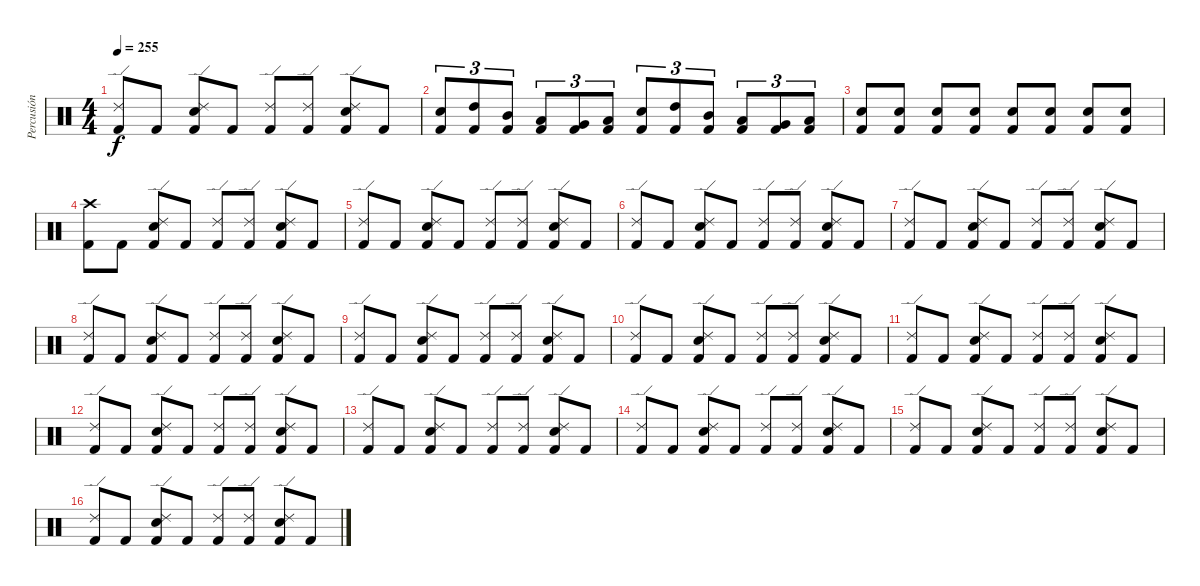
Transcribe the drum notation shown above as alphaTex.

\track ("Percusión" "Percusión") {instrument percussion}
\staff {score}
\articulation defaults
\ts (4 4)
\tempo 255
\clef neutral
\ks c
("Kick (hit) 2" "Ride (edge) 2").8{dy f} "Kick (hit) 2".8 ("Kick (hit) 2" "Electric Snare (hit)" "Ride (edge) 2").8 "Kick (hit) 2".8 ("Kick (hit) 2" "Ride (edge) 2").8 ("Kick (hit) 2" "Ride (edge) 2").8 ("Kick (hit) 2" "Electric Snare (hit)" "Ride (edge) 2").8 "Kick (hit) 2".8 |
("Kick (hit) 2" "Electric Snare (hit)").8{tu (3 2)} ("Kick (hit) 2" "High Tom (hit)").8{tu (3 2)} ("Kick (hit) 2" "Mid Tom (hit)").8{tu (3 2)} ("Kick (hit) 2" "Low Tom (hit)").8{tu (3 2)} ("Kick (hit) 2" "Very Low Tom (hit)").8{tu (3 2)} ("Kick (hit) 2" "Low Floor Tom (hit)").8{tu (3 2)} ("Kick (hit) 2" "Electric Snare (hit)").8{tu (3 2)} ("Kick (hit) 2" "High Tom (hit)").8{tu (3 2)} ("Kick (hit) 2" "Mid Tom (hit)").8{tu (3 2)} ("Kick (hit) 2" "Low Tom (hit)").8{tu (3 2)} ("Kick (hit) 2" "Very Low Tom (hit)").8{tu (3 2)} ("Kick (hit) 2" "Low Floor Tom (hit)").8{tu (3 2)} |
("Kick (hit) 2" "Electric Snare (hit)").8 ("Kick (hit) 2" "Electric Snare (hit)").8 ("Kick (hit) 2" "Electric Snare (hit)").8 ("Kick (hit) 2" "Electric Snare (hit)").8 ("Kick (hit) 2" "Electric Snare (hit)").8 ("Kick (hit) 2" "Electric Snare (hit)").8 ("Kick (hit) 2" "Electric Snare (hit)").8 ("Kick (hit) 2" "Electric Snare (hit)").8 |
("Kick (hit) 2" "Crash high (hit)").8 "Kick (hit) 2".8 ("Kick (hit) 2" "Electric Snare (hit)" "Ride (edge) 2").8 "Kick (hit) 2".8 ("Kick (hit) 2" "Ride (edge) 2").8 ("Kick (hit) 2" "Ride (edge) 2").8 ("Kick (hit) 2" "Electric Snare (hit)" "Ride (edge) 2").8 "Kick (hit) 2".8 |
("Kick (hit) 2" "Ride (edge) 2").8 "Kick (hit) 2".8 ("Kick (hit) 2" "Electric Snare (hit)" "Ride (edge) 2").8 "Kick (hit) 2".8 ("Kick (hit) 2" "Ride (edge) 2").8 ("Kick (hit) 2" "Ride (edge) 2").8 ("Kick (hit) 2" "Electric Snare (hit)" "Ride (edge) 2").8 "Kick (hit) 2".8 |
("Kick (hit) 2" "Ride (edge) 2").8 "Kick (hit) 2".8 ("Kick (hit) 2" "Electric Snare (hit)" "Ride (edge) 2").8 "Kick (hit) 2".8 ("Kick (hit) 2" "Ride (edge) 2").8 ("Kick (hit) 2" "Ride (edge) 2").8 ("Kick (hit) 2" "Electric Snare (hit)" "Ride (edge) 2").8 "Kick (hit) 2".8 |
("Kick (hit) 2" "Ride (edge) 2").8 "Kick (hit) 2".8 ("Kick (hit) 2" "Electric Snare (hit)" "Ride (edge) 2").8 "Kick (hit) 2".8 ("Kick (hit) 2" "Ride (edge) 2").8 ("Kick (hit) 2" "Ride (edge) 2").8 ("Kick (hit) 2" "Electric Snare (hit)" "Ride (edge) 2").8 "Kick (hit) 2".8 |
("Kick (hit) 2" "Ride (edge) 2").8 "Kick (hit) 2".8 ("Kick (hit) 2" "Electric Snare (hit)" "Ride (edge) 2").8 "Kick (hit) 2".8 ("Kick (hit) 2" "Ride (edge) 2").8 ("Kick (hit) 2" "Ride (edge) 2").8 ("Kick (hit) 2" "Electric Snare (hit)" "Ride (edge) 2").8 "Kick (hit) 2".8 |
("Kick (hit) 2" "Ride (edge) 2").8 "Kick (hit) 2".8 ("Kick (hit) 2" "Electric Snare (hit)" "Ride (edge) 2").8 "Kick (hit) 2".8 ("Kick (hit) 2" "Ride (edge) 2").8 ("Kick (hit) 2" "Ride (edge) 2").8 ("Kick (hit) 2" "Electric Snare (hit)" "Ride (edge) 2").8 "Kick (hit) 2".8 |
("Kick (hit) 2" "Ride (edge) 2").8 "Kick (hit) 2".8 ("Kick (hit) 2" "Electric Snare (hit)" "Ride (edge) 2").8 "Kick (hit) 2".8 ("Kick (hit) 2" "Ride (edge) 2").8 ("Kick (hit) 2" "Ride (edge) 2").8 ("Kick (hit) 2" "Electric Snare (hit)" "Ride (edge) 2").8 "Kick (hit) 2".8 |
("Kick (hit) 2" "Ride (edge) 2").8 "Kick (hit) 2".8 ("Kick (hit) 2" "Electric Snare (hit)" "Ride (edge) 2").8 "Kick (hit) 2".8 ("Kick (hit) 2" "Ride (edge) 2").8 ("Kick (hit) 2" "Ride (edge) 2").8 ("Kick (hit) 2" "Electric Snare (hit)" "Ride (edge) 2").8 "Kick (hit) 2".8 |
("Kick (hit) 2" "Ride (edge) 2").8 "Kick (hit) 2".8 ("Kick (hit) 2" "Electric Snare (hit)" "Ride (edge) 2").8 "Kick (hit) 2".8 ("Kick (hit) 2" "Ride (edge) 2").8 ("Kick (hit) 2" "Ride (edge) 2").8 ("Kick (hit) 2" "Electric Snare (hit)" "Ride (edge) 2").8 "Kick (hit) 2".8 |
("Kick (hit) 2" "Ride (edge) 2").8 "Kick (hit) 2".8 ("Kick (hit) 2" "Electric Snare (hit)" "Ride (edge) 2").8 "Kick (hit) 2".8 ("Kick (hit) 2" "Ride (edge) 2").8 ("Kick (hit) 2" "Ride (edge) 2").8 ("Kick (hit) 2" "Electric Snare (hit)" "Ride (edge) 2").8 "Kick (hit) 2".8 |
("Kick (hit) 2" "Ride (edge) 2").8 "Kick (hit) 2".8 ("Kick (hit) 2" "Electric Snare (hit)" "Ride (edge) 2").8 "Kick (hit) 2".8 ("Kick (hit) 2" "Ride (edge) 2").8 ("Kick (hit) 2" "Ride (edge) 2").8 ("Kick (hit) 2" "Electric Snare (hit)" "Ride (edge) 2").8 "Kick (hit) 2".8 |
("Kick (hit) 2" "Ride (edge) 2").8 "Kick (hit) 2".8 ("Kick (hit) 2" "Electric Snare (hit)" "Ride (edge) 2").8 "Kick (hit) 2".8 ("Kick (hit) 2" "Ride (edge) 2").8 ("Kick (hit) 2" "Ride (edge) 2").8 ("Kick (hit) 2" "Electric Snare (hit)" "Ride (edge) 2").8 "Kick (hit) 2".8 |
("Kick (hit) 2" "Ride (edge) 2").8 "Kick (hit) 2".8 ("Kick (hit) 2" "Electric Snare (hit)" "Ride (edge) 2").8 "Kick (hit) 2".8 ("Kick (hit) 2" "Ride (edge) 2").8 ("Kick (hit) 2" "Ride (edge) 2").8 ("Kick (hit) 2" "Electric Snare (hit)" "Ride (edge) 2").8 "Kick (hit) 2".8
